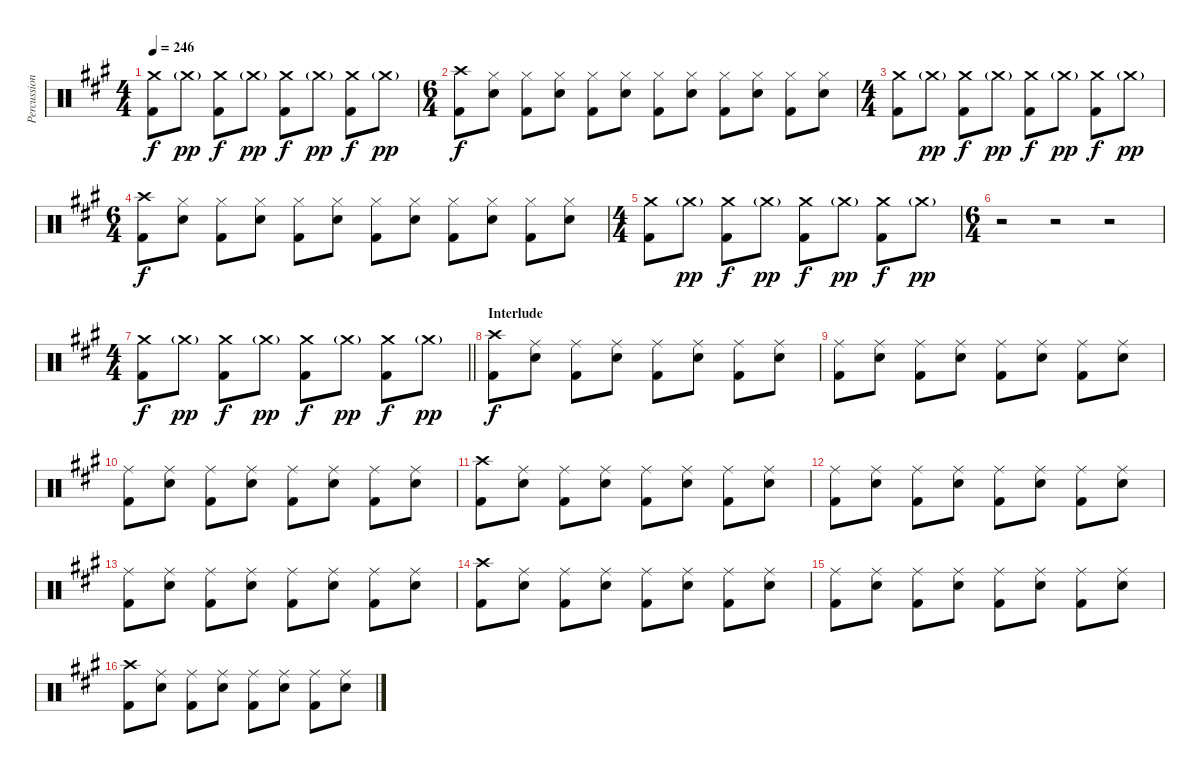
\track ("Percussion" "Percussion") {instrument percussion}
\staff {score}
\articulation defaults
\ts (4 4)
\tempo 246
\clef neutral
\ks f#minor
("Crash medium (hit)" "Kick (hit) 2").8{dy f} "Crash medium (hit)"{g}.8{dy pp} ("Crash medium (hit)" "Kick (hit) 2").8{dy f} "Crash medium (hit)"{g}.8{dy pp} ("Crash medium (hit)" "Kick (hit) 2").8{dy f} "Crash medium (hit)"{g}.8{dy pp} ("Crash medium (hit)" "Kick (hit) 2").8{dy f} "Crash medium (hit)"{g}.8{dy pp} |
\ts (6 4)
("Crash high (hit)" "Kick (hit) 2").8{dy f} ("Hi-Hat (closed)" "Electric Snare (hit)").8 ("Hi-Hat (closed)" "Kick (hit) 2").8 ("Hi-Hat (closed)" "Electric Snare (hit)").8 ("Hi-Hat (closed)" "Kick (hit) 2").8 ("Hi-Hat (closed)" "Electric Snare (hit)").8 ("Hi-Hat (closed)" "Kick (hit) 2").8 ("Hi-Hat (closed)" "Electric Snare (hit)").8 ("Hi-Hat (closed)" "Kick (hit) 2").8 ("Hi-Hat (closed)" "Electric Snare (hit)").8 ("Hi-Hat (closed)" "Kick (hit) 2").8 ("Hi-Hat (closed)" "Electric Snare (hit)").8 |
\ts (4 4)
("Crash medium (hit)" "Kick (hit) 2").8 "Crash medium (hit)"{g}.8{dy pp} ("Crash medium (hit)" "Kick (hit) 2").8{dy f} "Crash medium (hit)"{g}.8{dy pp} ("Crash medium (hit)" "Kick (hit) 2").8{dy f} "Crash medium (hit)"{g}.8{dy pp} ("Crash medium (hit)" "Kick (hit) 2").8{dy f} "Crash medium (hit)"{g}.8{dy pp} |
\ts (6 4)
("Crash high (hit)" "Kick (hit) 2").8{dy f} ("Hi-Hat (closed)" "Electric Snare (hit)").8 ("Hi-Hat (closed)" "Kick (hit) 2").8 ("Hi-Hat (closed)" "Electric Snare (hit)").8 ("Hi-Hat (closed)" "Kick (hit) 2").8 ("Hi-Hat (closed)" "Electric Snare (hit)").8 ("Hi-Hat (closed)" "Kick (hit) 2").8 ("Hi-Hat (closed)" "Electric Snare (hit)").8 ("Hi-Hat (closed)" "Kick (hit) 2").8 ("Hi-Hat (closed)" "Electric Snare (hit)").8 ("Hi-Hat (closed)" "Kick (hit) 2").8 ("Hi-Hat (closed)" "Electric Snare (hit)").8 |
\ts (4 4)
("Crash medium (hit)" "Kick (hit) 2").8 "Crash medium (hit)"{g}.8{dy pp} ("Crash medium (hit)" "Kick (hit) 2").8{dy f} "Crash medium (hit)"{g}.8{dy pp} ("Crash medium (hit)" "Kick (hit) 2").8{dy f} "Crash medium (hit)"{g}.8{dy pp} ("Crash medium (hit)" "Kick (hit) 2").8{dy f} "Crash medium (hit)"{g}.8{dy pp} |
\ts (6 4)
r.2 r.2 r.2 |
\ts (4 4)
\barLineRight lightlight
("Crash medium (hit)" "Kick (hit) 2").8{dy f} "Crash medium (hit)"{g}.8{dy pp} ("Crash medium (hit)" "Kick (hit) 2").8{dy f} "Crash medium (hit)"{g}.8{dy pp} ("Crash medium (hit)" "Kick (hit) 2").8{dy f} "Crash medium (hit)"{g}.8{dy pp} ("Crash medium (hit)" "Kick (hit) 2").8{dy f} "Crash medium (hit)"{g}.8{dy pp} |
\section ("" "Interlude")
("Crash high (hit)" "Kick (hit) 2").8{dy f} ("Ride (middle)" "Electric Snare (hit)").8 ("Ride (middle)" "Kick (hit) 2").8 ("Ride (middle)" "Electric Snare (hit)").8 ("Ride (middle)" "Kick (hit) 2").8 ("Ride (middle)" "Electric Snare (hit)").8 ("Ride (middle)" "Kick (hit) 2").8 ("Ride (middle)" "Electric Snare (hit)").8 |
("Ride (middle)" "Kick (hit) 2").8 ("Ride (middle)" "Electric Snare (hit)").8 ("Ride (middle)" "Kick (hit) 2").8 ("Ride (middle)" "Electric Snare (hit)").8 ("Ride (middle)" "Kick (hit) 2").8 ("Ride (middle)" "Electric Snare (hit)").8 ("Ride (middle)" "Kick (hit) 2").8 ("Ride (middle)" "Electric Snare (hit)").8 |
("Ride (middle)" "Kick (hit) 2").8 ("Ride (middle)" "Electric Snare (hit)").8 ("Ride (middle)" "Kick (hit) 2").8 ("Ride (middle)" "Electric Snare (hit)").8 ("Ride (middle)" "Kick (hit) 2").8 ("Ride (middle)" "Electric Snare (hit)").8 ("Ride (middle)" "Kick (hit) 2").8 ("Ride (middle)" "Electric Snare (hit)").8 |
("Crash high (hit)" "Kick (hit) 2").8 ("Ride (middle)" "Electric Snare (hit)").8 ("Ride (middle)" "Kick (hit) 2").8 ("Ride (middle)" "Electric Snare (hit)").8 ("Ride (middle)" "Kick (hit) 2").8 ("Ride (middle)" "Electric Snare (hit)").8 ("Ride (middle)" "Kick (hit) 2").8 ("Ride (middle)" "Electric Snare (hit)").8 |
("Ride (middle)" "Kick (hit) 2").8 ("Ride (middle)" "Electric Snare (hit)").8 ("Ride (middle)" "Kick (hit) 2").8 ("Ride (middle)" "Electric Snare (hit)").8 ("Ride (middle)" "Kick (hit) 2").8 ("Ride (middle)" "Electric Snare (hit)").8 ("Ride (middle)" "Kick (hit) 2").8 ("Ride (middle)" "Electric Snare (hit)").8 |
("Ride (middle)" "Kick (hit) 2").8 ("Ride (middle)" "Electric Snare (hit)").8 ("Ride (middle)" "Kick (hit) 2").8 ("Ride (middle)" "Electric Snare (hit)").8 ("Ride (middle)" "Kick (hit) 2").8 ("Ride (middle)" "Electric Snare (hit)").8 ("Ride (middle)" "Kick (hit) 2").8 ("Ride (middle)" "Electric Snare (hit)").8 |
("Crash high (hit)" "Kick (hit) 2").8 ("Ride (middle)" "Electric Snare (hit)").8 ("Ride (middle)" "Kick (hit) 2").8 ("Ride (middle)" "Electric Snare (hit)").8 ("Ride (middle)" "Kick (hit) 2").8 ("Ride (middle)" "Electric Snare (hit)").8 ("Ride (middle)" "Kick (hit) 2").8 ("Ride (middle)" "Electric Snare (hit)").8 |
("Ride (middle)" "Kick (hit) 2").8 ("Ride (middle)" "Electric Snare (hit)").8 ("Ride (middle)" "Kick (hit) 2").8 ("Ride (middle)" "Electric Snare (hit)").8 ("Ride (middle)" "Kick (hit) 2").8 ("Ride (middle)" "Electric Snare (hit)").8 ("Ride (middle)" "Kick (hit) 2").8 ("Ride (middle)" "Electric Snare (hit)").8 |
("Crash high (hit)" "Kick (hit) 2").8 ("Ride (middle)" "Electric Snare (hit)").8 ("Ride (middle)" "Kick (hit) 2").8 ("Ride (middle)" "Electric Snare (hit)").8 ("Ride (middle)" "Kick (hit) 2").8 ("Ride (middle)" "Electric Snare (hit)").8 ("Ride (middle)" "Kick (hit) 2").8 ("Ride (middle)" "Electric Snare (hit)").8
